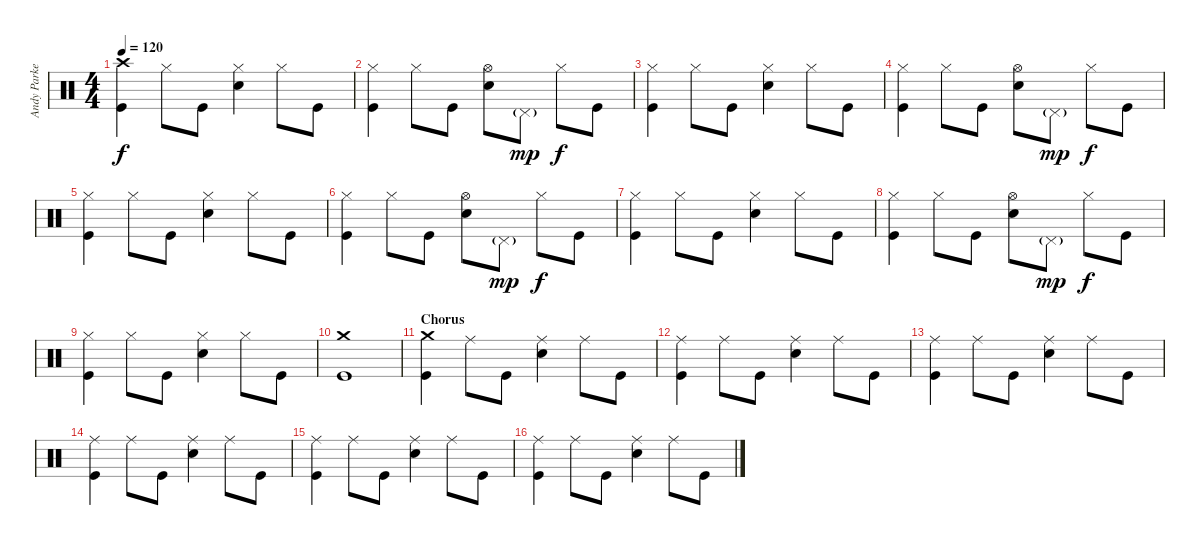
\track ("Andy Parker" "Andy Parke") {instrument percussion}
\staff {score}
\articulation defaults
\ts (4 4)
\tempo 120
\clef neutral
\ks c
("Crash high (hit)" "Kick (hit)").4{dy f} "Hi-Hat (closed)".8 "Kick (hit)".8 ("Hi-Hat (closed)" "Snare (hit) 2").4 "Hi-Hat (closed)".8 "Kick (hit)".8 |
("Hi-Hat (closed)" "Kick (hit)").4 "Hi-Hat (closed)".8 "Kick (hit)".8 ("Hi-Hat (open)" "Snare (hit) 2").8 "Pedal Hi-Hat (hit)"{g}.8{dy mp} "Hi-Hat (closed)".8{dy f} "Kick (hit)".8 |
("Hi-Hat (closed)" "Kick (hit)").4 "Hi-Hat (closed)".8 "Kick (hit)".8 ("Hi-Hat (closed)" "Snare (hit) 2").4 "Hi-Hat (closed)".8 "Kick (hit)".8 |
("Hi-Hat (closed)" "Kick (hit)").4 "Hi-Hat (closed)".8 "Kick (hit)".8 ("Hi-Hat (open)" "Snare (hit) 2").8 "Pedal Hi-Hat (hit)"{g}.8{dy mp} "Hi-Hat (closed)".8{dy f} "Kick (hit)".8 |
("Hi-Hat (closed)" "Kick (hit)").4 "Hi-Hat (closed)".8 "Kick (hit)".8 ("Hi-Hat (closed)" "Snare (hit) 2").4 "Hi-Hat (closed)".8 "Kick (hit)".8 |
("Hi-Hat (closed)" "Kick (hit)").4 "Hi-Hat (closed)".8 "Kick (hit)".8 ("Hi-Hat (open)" "Snare (hit) 2").8 "Pedal Hi-Hat (hit)"{g}.8{dy mp} "Hi-Hat (closed)".8{dy f} "Kick (hit)".8 |
("Hi-Hat (closed)" "Kick (hit)").4 "Hi-Hat (closed)".8 "Kick (hit)".8 ("Hi-Hat (closed)" "Snare (hit) 2").4 "Hi-Hat (closed)".8 "Kick (hit)".8 |
("Hi-Hat (closed)" "Kick (hit)").4 "Hi-Hat (closed)".8 "Kick (hit)".8 ("Hi-Hat (open)" "Snare (hit) 2").8 "Pedal Hi-Hat (hit)"{g}.8{dy mp} "Hi-Hat (closed)".8{dy f} "Kick (hit)".8 |
("Hi-Hat (closed)" "Kick (hit)").4 "Hi-Hat (closed)".8 "Kick (hit)".8 ("Hi-Hat (closed)" "Snare (hit) 2").4 "Hi-Hat (closed)".8 "Kick (hit)".8 |
("Crash medium (hit)" "Kick (hit)").1 |
\section ("" "Chorus")
("Crash medium (hit)" "Kick (hit)").4 "Ride (middle)".8 "Kick (hit)".8 ("Ride (middle)" "Snare (hit) 2").4 "Ride (middle)".8 "Kick (hit)".8 |
("Ride (middle)" "Kick (hit)").4 "Ride (middle)".8 "Kick (hit)".8 ("Ride (middle)" "Snare (hit) 2").4 "Ride (middle)".8 "Kick (hit)".8 |
("Ride (middle)" "Kick (hit)").4 "Ride (middle)".8 "Kick (hit)".8 ("Ride (middle)" "Snare (hit) 2").4 "Ride (middle)".8 "Kick (hit)".8 |
("Ride (middle)" "Kick (hit)").4 "Ride (middle)".8 "Kick (hit)".8 ("Ride (middle)" "Snare (hit) 2").4 "Ride (middle)".8 "Kick (hit)".8 |
("Ride (middle)" "Kick (hit)").4 "Ride (middle)".8 "Kick (hit)".8 ("Ride (middle)" "Snare (hit) 2").4 "Ride (middle)".8 "Kick (hit)".8 |
("Ride (middle)" "Kick (hit)").4 "Ride (middle)".8 "Kick (hit)".8 ("Ride (middle)" "Snare (hit) 2").4 "Ride (middle)".8 "Kick (hit)".8
